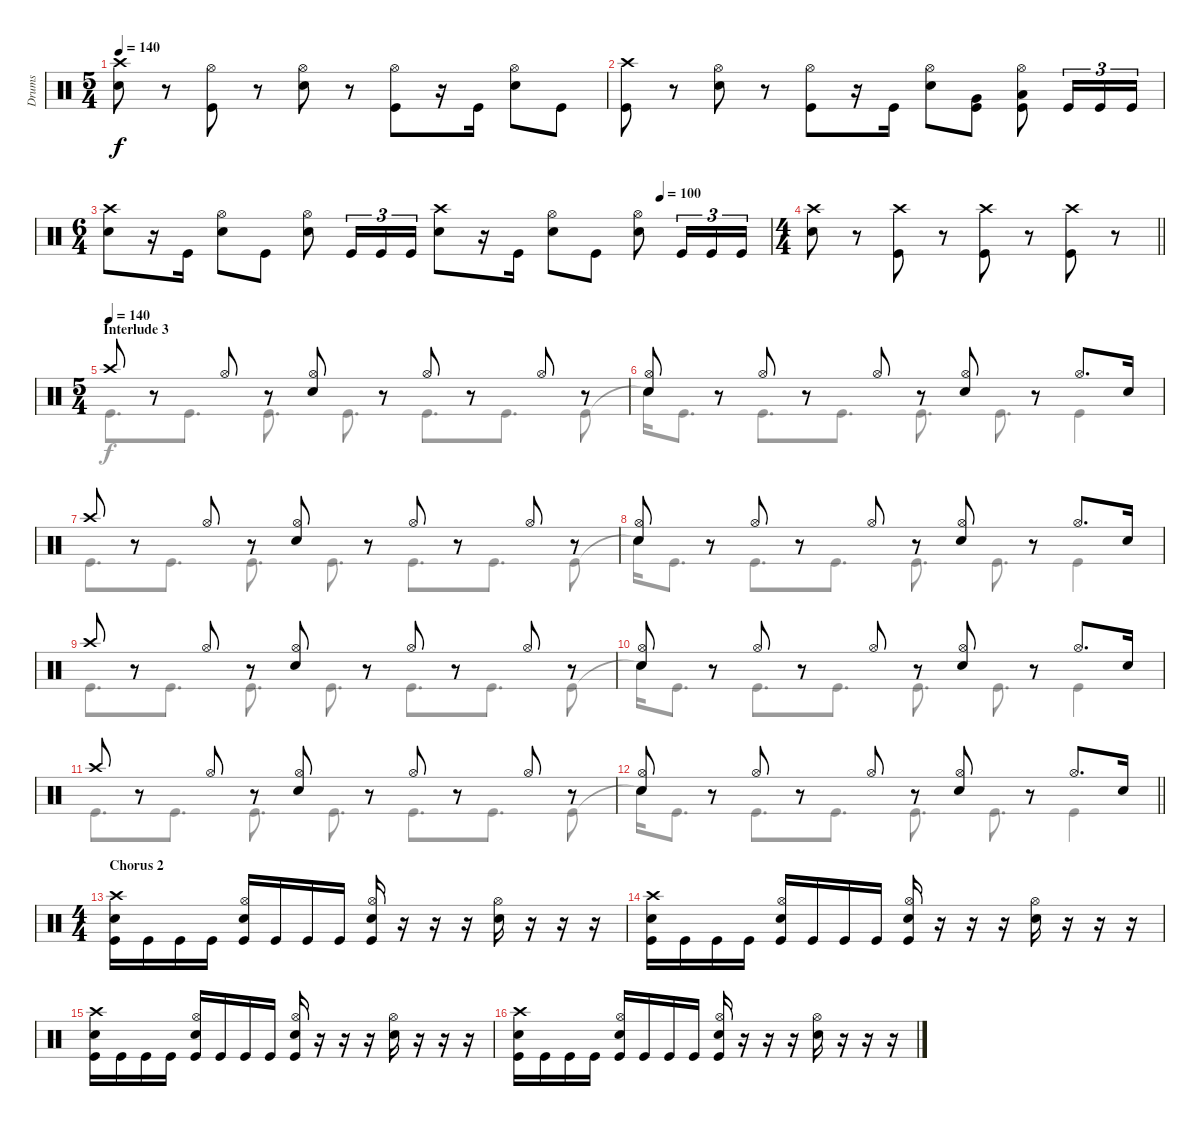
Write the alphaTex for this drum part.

\track ("Drums" "Drums") {instrument percussion}
\staff {score}
\articulation defaults
\voice
\ts (5 4)
\tempo 140
\clef neutral
\ks c
("Crash high (hit)" "Snare (hit) 2").8{dy f} r.8 ("Hi-Hat (open)" "Kick (hit)").8 r.8 ("Hi-Hat (open)" "Snare (hit) 2").8 r.8 ("Hi-Hat (open)" "Kick (hit)").8 r.16 "Kick (hit)".16 ("Hi-Hat (open)" "Snare (hit) 2").8 "Kick (hit)".8 |
("Crash high (hit)" "Kick (hit)").8 r.8 ("Hi-Hat (open)" "Snare (hit) 2").8 r.8 ("Hi-Hat (open)" "Kick (hit)").8 r.16 "Kick (hit)".16 ("Hi-Hat (open)" "Snare (hit) 2").8 ("Very Low Tom (hit)" "Kick (hit)").8 ("Hi-Hat (open)" "Low Tom (hit)" "Kick (hit)").8 "Kick (hit)".16{tu (3 2)} "Kick (hit)".16{tu (3 2)} "Kick (hit)".16{tu (3 2)} |
\ts (6 4)
\tempo (100 0.8333333333333334)
("Crash high (hit)" "Snare (hit) 2").8 r.16 "Kick (hit)".16 ("Hi-Hat (open)" "Snare (hit) 2").8 "Kick (hit)".8 ("Hi-Hat (open)" "Snare (hit) 2").8 "Kick (hit)".16{tu (3 2)} "Kick (hit)".16{tu (3 2)} "Kick (hit)".16{tu (3 2)} ("Crash high (hit)" "Snare (hit) 2").8 r.16 "Kick (hit)".16 ("Hi-Hat (open)" "Snare (hit) 2").8 "Kick (hit)".8 ("Hi-Hat (open)" "Snare (hit) 2").8 "Kick (hit)".16{tu (3 2)} "Kick (hit)".16{tu (3 2)} "Kick (hit)".16{tu (3 2)} |
\ts (4 4)
\barLineRight lightlight
("Crash high (hit)" "Snare (hit) 2").8 r.8 ("Crash high (hit)" "Kick (hit)").8 r.8 ("Crash high (hit)" "Kick (hit)").8 r.8 ("Crash high (hit)" "Kick (hit)").8 r.8 |
\ts (5 4)
\section ("" "Interlude 3")
\tempo (140)
"Crash high (hit)".8 r.8 "Hi-Hat (open)".8 r.8 ("Hi-Hat (open)" "Snare (hit) 2").8 r.8 "Hi-Hat (open)".8 r.8 "Hi-Hat (open)".8 r.8 |
("Hi-Hat (open)" "Snare (hit) 2").8 r.8 "Hi-Hat (open)".8 r.8 "Hi-Hat (open)".8 r.8 ("Hi-Hat (open)" "Snare (hit) 2").8 r.8 "Hi-Hat (open)".8{d} "Snare (hit) 2".16 |
"Crash high (hit)".8 r.8 "Hi-Hat (open)".8 r.8 ("Hi-Hat (open)" "Snare (hit) 2").8 r.8 "Hi-Hat (open)".8 r.8 "Hi-Hat (open)".8 r.8 |
("Hi-Hat (open)" "Snare (hit) 2").8 r.8 "Hi-Hat (open)".8 r.8 "Hi-Hat (open)".8 r.8 ("Hi-Hat (open)" "Snare (hit) 2").8 r.8 "Hi-Hat (open)".8{d} "Snare (hit) 2".16 |
"Crash high (hit)".8 r.8 "Hi-Hat (open)".8 r.8 ("Hi-Hat (open)" "Snare (hit) 2").8 r.8 "Hi-Hat (open)".8 r.8 "Hi-Hat (open)".8 r.8 |
("Hi-Hat (open)" "Snare (hit) 2").8 r.8 "Hi-Hat (open)".8 r.8 "Hi-Hat (open)".8 r.8 ("Hi-Hat (open)" "Snare (hit) 2").8 r.8 "Hi-Hat (open)".8{d} "Snare (hit) 2".16 |
"Crash high (hit)".8 r.8 "Hi-Hat (open)".8 r.8 ("Hi-Hat (open)" "Snare (hit) 2").8 r.8 "Hi-Hat (open)".8 r.8 "Hi-Hat (open)".8 r.8 |
\barLineRight lightlight
("Hi-Hat (open)" "Snare (hit) 2").8 r.8 "Hi-Hat (open)".8 r.8 "Hi-Hat (open)".8 r.8 ("Hi-Hat (open)" "Snare (hit) 2").8 r.8 "Hi-Hat (open)".8{d} "Snare (hit) 2".16 |
\ts (4 4)
\section ("" "Chorus 2")
("Crash high (hit)" "Snare (hit) 2" "Kick (hit)").16 "Kick (hit)".16 "Kick (hit)".16 "Kick (hit)".16 ("Hi-Hat (open)" "Snare (hit) 2" "Kick (hit)").16 "Kick (hit)".16 "Kick (hit)".16 "Kick (hit)".16 ("Hi-Hat (open)" "Snare (hit) 2" "Kick (hit)").16 r.16 r.16 r.16 ("Hi-Hat (open)" "Snare (hit) 2").16 r.16 r.16 r.16 |
("Crash high (hit)" "Snare (hit) 2" "Kick (hit)").16 "Kick (hit)".16 "Kick (hit)".16 "Kick (hit)".16 ("Hi-Hat (open)" "Snare (hit) 2" "Kick (hit)").16 "Kick (hit)".16 "Kick (hit)".16 "Kick (hit)".16 ("Hi-Hat (open)" "Snare (hit) 2" "Kick (hit)").16 r.16 r.16 r.16 ("Hi-Hat (open)" "Snare (hit) 2").16 r.16 r.16 r.16 |
("Crash high (hit)" "Snare (hit) 2" "Kick (hit)").16 "Kick (hit)".16 "Kick (hit)".16 "Kick (hit)".16 ("Hi-Hat (open)" "Snare (hit) 2" "Kick (hit)").16 "Kick (hit)".16 "Kick (hit)".16 "Kick (hit)".16 ("Hi-Hat (open)" "Snare (hit) 2" "Kick (hit)").16 r.16 r.16 r.16 ("Hi-Hat (open)" "Snare (hit) 2").16 r.16 r.16 r.16 |
("Crash high (hit)" "Snare (hit) 2" "Kick (hit)").16 "Kick (hit)".16 "Kick (hit)".16 "Kick (hit)".16 ("Hi-Hat (open)" "Snare (hit) 2" "Kick (hit)").16 "Kick (hit)".16 "Kick (hit)".16 "Kick (hit)".16 ("Hi-Hat (open)" "Snare (hit) 2" "Kick (hit)").16 r.16 r.16 r.16 ("Hi-Hat (open)" "Snare (hit) 2").16 r.16 r.16 r.16
\voice
\clef neutral
\ottava regular
\simile none
\ks c
|
|
|
\barLineRight lightlight
|
"Kick (hit)".8{d} "Kick (hit)".8{d} "Kick (hit)".8{d} "Kick (hit)".8{d} "Kick (hit)".8{d} "Kick (hit)".8{d} "Kick (hit)".8 |
"Snare (hit)"{t}.16 "Kick (hit)".8{d} "Kick (hit)".8{d} "Kick (hit)".8{d} "Kick (hit)".8{d} "Kick (hit)".8{d} "Kick (hit)".4 |
"Kick (hit)".8{d} "Kick (hit)".8{d} "Kick (hit)".8{d} "Kick (hit)".8{d} "Kick (hit)".8{d} "Kick (hit)".8{d} "Kick (hit)".8 |
"Snare (hit)"{t}.16 "Kick (hit)".8{d} "Kick (hit)".8{d} "Kick (hit)".8{d} "Kick (hit)".8{d} "Kick (hit)".8{d} "Kick (hit)".4 |
"Kick (hit)".8{d} "Kick (hit)".8{d} "Kick (hit)".8{d} "Kick (hit)".8{d} "Kick (hit)".8{d} "Kick (hit)".8{d} "Kick (hit)".8 |
"Snare (hit)"{t}.16 "Kick (hit)".8{d} "Kick (hit)".8{d} "Kick (hit)".8{d} "Kick (hit)".8{d} "Kick (hit)".8{d} "Kick (hit)".4 |
"Kick (hit)".8{d} "Kick (hit)".8{d} "Kick (hit)".8{d} "Kick (hit)".8{d} "Kick (hit)".8{d} "Kick (hit)".8{d} "Kick (hit)".8 |
\barLineRight lightlight "Snare (hit)"{t}.16 "Kick (hit)".8{d} "Kick (hit)".8{d} "Kick (hit)".8{d} "Kick (hit)".8{d} "Kick (hit)".8{d} "Kick (hit)".4
|
|
|
|
